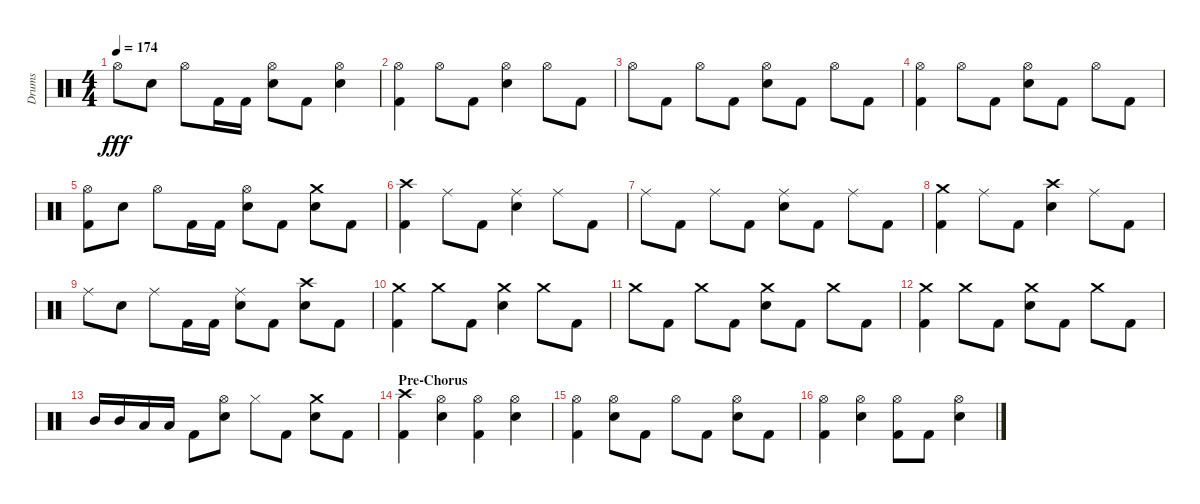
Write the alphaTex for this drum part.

\track ("Drums" "Drums") {instrument percussion}
\staff {score}
\articulation defaults
\ts (4 4)
\tempo 174
\clef neutral
\ks aminor "Hi-Hat (open)".8{dy fff} "Snare (hit) 2".8 "Hi-Hat (open)".8 "Kick (hit) 2".16 "Kick (hit) 2".16
("Snare (hit) 2" "Hi-Hat (open)").8 "Kick (hit) 2".8 ("Snare (hit) 2" "Hi-Hat (open)").4 |
("Kick (hit) 2" "Hi-Hat (open)").4 "Hi-Hat (open)".8 "Kick (hit) 2".8 ("Snare (hit) 2" "Hi-Hat (open)").4 "Hi-Hat (open)".8 "Kick (hit) 2".8 |
"Hi-Hat (open)".8 "Kick (hit) 2".8 "Hi-Hat (open)".8 "Kick (hit) 2".8 ("Snare (hit) 2" "Hi-Hat (open)").8 "Kick (hit) 2".8 "Hi-Hat (open)".8 "Kick (hit) 2".8 |
("Kick (hit) 2" "Hi-Hat (open)").4 "Hi-Hat (open)".8 "Kick (hit) 2".8 ("Snare (hit) 2" "Hi-Hat (open)").8 "Kick (hit) 2".8 "Hi-Hat (open)".8 "Kick (hit) 2".8 |
("Kick (hit) 2" "Hi-Hat (open)").8 "Snare (hit) 2".8 "Hi-Hat (open)".8 "Kick (hit) 2".16 "Kick (hit) 2".16 ("Snare (hit) 2" "Hi-Hat (open)").8 "Kick (hit) 2".8 ("Snare (hit) 2" "Crash medium (hit)").8 "Kick (hit) 2".8 |
("Kick (hit) 2" "Crash high (hit)").4 "Ride (middle)".8 "Kick (hit) 2".8 ("Snare (hit) 2" "Ride (middle)").4 "Ride (middle)".8 "Kick (hit) 2".8 |
"Ride (middle)".8 "Kick (hit) 2".8 "Ride (middle)".8 "Kick (hit) 2".8 ("Snare (hit) 2" "Ride (middle)").8 "Kick (hit) 2".8 "Ride (middle)".8 "Kick (hit) 2".8 |
("Kick (hit) 2" "Crash medium (hit)").4 "Ride (middle)".8 "Kick (hit) 2".8 ("Snare (hit) 2" "Crash high (hit)").4 "Ride (middle)".8 "Kick (hit) 2".8 |
"Ride (middle)".8 "Snare (hit) 2".8 "Ride (middle)".8 "Kick (hit) 2".16 "Kick (hit) 2".16 ("Snare (hit) 2" "Ride (middle)").8 "Kick (hit) 2".8 ("Snare (hit) 2" "Crash high (hit)").8 "Kick (hit) 2".8 |
("Kick (hit) 2" "Crash medium (hit)").4 "Crash medium (hit)".8 "Kick (hit) 2".8 ("Snare (hit) 2" "Crash medium (hit)").4 "Crash medium (hit)".8 "Kick (hit) 2".8 |
"Crash medium (hit)".8 "Kick (hit) 2".8 "Crash medium (hit)".8 "Kick (hit) 2".8 ("Snare (hit) 2" "Crash medium (hit)").8 "Kick (hit) 2".8 "Crash medium (hit)".8 "Kick (hit) 2".8 |
("Kick (hit) 2" "Crash medium (hit)").4 "Crash medium (hit)".8 "Kick (hit) 2".8 ("Snare (hit) 2" "Crash medium (hit)").8 "Kick (hit) 2".8 "Crash medium (hit)".8 "Kick (hit) 2".8 |
"Mid Tom (hit)".16 "Mid Tom (hit)".16 "Low Tom (hit)".16 "Low Tom (hit)".16 "Kick (hit) 2".8 ("Snare (hit) 2" "Hi-Hat (open)").8 "Hi-Hat (closed)".8 "Kick (hit) 2".8 ("Snare (hit) 2" "Crash medium (hit)").8 "Kick (hit) 2".8 |
\section ("" "Pre-Chorus")
("Kick (hit) 2" "Crash high (hit)").4 ("Snare (hit) 2" "Hi-Hat (open)").4 ("Kick (hit) 2" "Hi-Hat (open)").4 ("Snare (hit) 2" "Hi-Hat (open)").4 |
("Kick (hit) 2" "Hi-Hat (open)").4 ("Snare (hit) 2" "Hi-Hat (open)").8 "Kick (hit) 2".8 "Hi-Hat (open)".8 "Kick (hit) 2".8 ("Snare (hit) 2" "Hi-Hat (open)").8 "Kick (hit) 2".8 |
("Kick (hit) 2" "Hi-Hat (open)").4 ("Snare (hit) 2" "Hi-Hat (open)").4 ("Kick (hit) 2" "Hi-Hat (open)").8 "Kick (hit) 2".8 ("Snare (hit) 2" "Hi-Hat (open)").4
